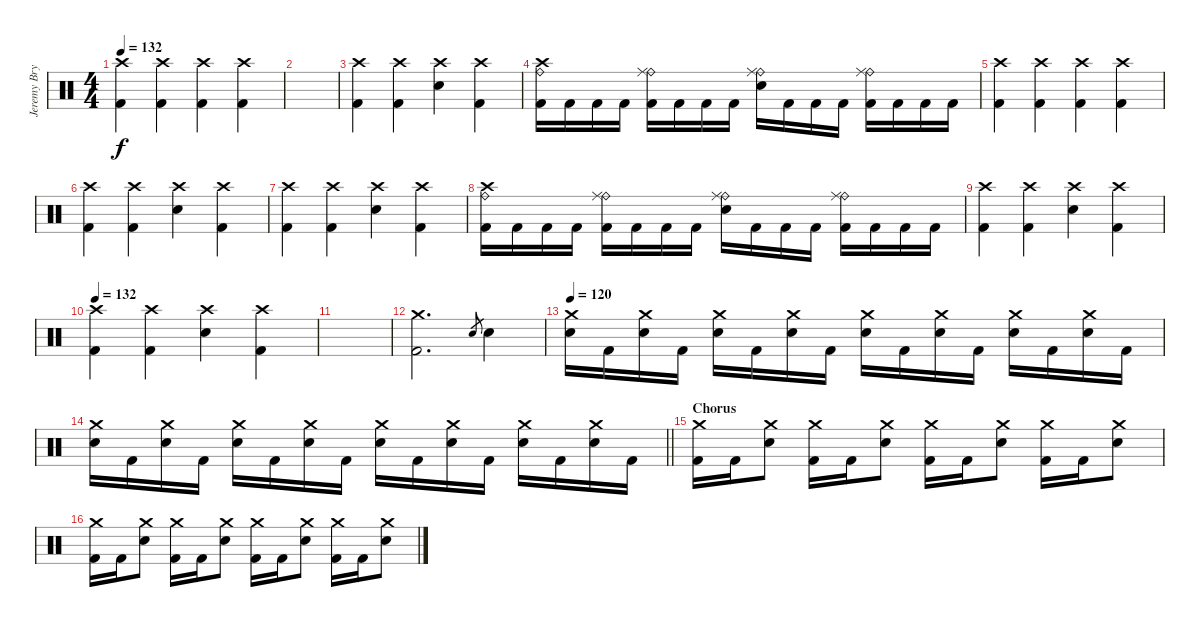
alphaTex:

\track ("Jeremy Bryan - Drums" "Jeremy Bry") {instrument percussion}
\staff {score}
\articulation defaults
\ts (4 4)
\tempo 132
\clef neutral
\ks c
("Crash high (hit)" "Kick (hit) 2").4{dy f} ("Crash high (hit)" "Kick (hit) 2").4 ("Crash high (hit)" "Kick (hit) 2").4 ("Crash high (hit)" "Kick (hit) 2").4 |
|
("Crash high (hit)" "Kick (hit) 2").4 ("Crash high (hit)" "Kick (hit) 2").4 ("Crash high (hit)" "Electric Snare (hit)").4 ("Crash high (hit)" "Kick (hit) 2").4 |
("Crash high (hit)" "Ride (bell)" "Kick (hit) 2").16 "Kick (hit) 2".16 "Kick (hit) 2".16 "Kick (hit) 2".16 ("Ride (bell)" "Ride (middle)" "Kick (hit) 2").16 "Kick (hit) 2".16 "Kick (hit) 2".16 "Kick (hit) 2".16 ("Ride (bell)" "Ride (middle)" "Electric Snare (hit)").16 "Kick (hit) 2".16 "Kick (hit) 2".16 "Kick (hit) 2".16 ("Ride (bell)" "Ride (middle)" "Kick (hit) 2").16 "Kick (hit) 2".16 "Kick (hit) 2".16 "Kick (hit) 2".16 |
("Crash high (hit)" "Kick (hit) 2").4 ("Crash high (hit)" "Kick (hit) 2").4 ("Crash high (hit)" "Kick (hit) 2").4 ("Crash high (hit)" "Kick (hit) 2").4 |
("Crash high (hit)" "Kick (hit) 2").4 ("Crash high (hit)" "Kick (hit) 2").4 ("Crash high (hit)" "Electric Snare (hit)").4 ("Crash high (hit)" "Kick (hit) 2").4 |
("Crash high (hit)" "Kick (hit) 2").4 ("Crash high (hit)" "Kick (hit) 2").4 ("Crash high (hit)" "Electric Snare (hit)").4 ("Crash high (hit)" "Kick (hit) 2").4 |
("Crash high (hit)" "Ride (bell)" "Kick (hit) 2").16 "Kick (hit) 2".16 "Kick (hit) 2".16 "Kick (hit) 2".16 ("Ride (bell)" "Ride (middle)" "Kick (hit) 2").16 "Kick (hit) 2".16 "Kick (hit) 2".16 "Kick (hit) 2".16 ("Ride (bell)" "Ride (middle)" "Electric Snare (hit)").16 "Kick (hit) 2".16 "Kick (hit) 2".16 "Kick (hit) 2".16 ("Ride (bell)" "Ride (middle)" "Kick (hit) 2").16 "Kick (hit) 2".16 "Kick (hit) 2".16 "Kick (hit) 2".16 |
("Crash high (hit)" "Kick (hit) 2").4 ("Crash high (hit)" "Kick (hit) 2").4 ("Crash high (hit)" "Electric Snare (hit)").4 ("Crash high (hit)" "Kick (hit) 2").4 |
\tempo 132
("Crash high (hit)" "Kick (hit) 2").4 ("Crash high (hit)" "Kick (hit) 2").4 ("Crash high (hit)" "Electric Snare (hit)").4 ("Crash high (hit)" "Kick (hit) 2").4 |
|
("Crash medium (hit)" "Kick (hit) 2").2{d} "Electric Snare (hit)".8{gr} "Electric Snare (hit)".4 |
\tempo 120
("Crash medium (hit)" "Electric Snare (hit)").16 "Kick (hit) 2".16 ("Crash medium (hit)" "Electric Snare (hit)").16 "Kick (hit) 2".16 ("Crash medium (hit)" "Electric Snare (hit)").16 "Kick (hit) 2".16 ("Crash medium (hit)" "Electric Snare (hit)").16 "Kick (hit) 2".16 ("Crash medium (hit)" "Electric Snare (hit)").16 "Kick (hit) 2".16 ("Crash medium (hit)" "Electric Snare (hit)").16 "Kick (hit) 2".16 ("Crash medium (hit)" "Electric Snare (hit)").16 "Kick (hit) 2".16 ("Crash medium (hit)" "Electric Snare (hit)").16 "Kick (hit) 2".16 |
\barLineRight lightlight
("Crash medium (hit)" "Electric Snare (hit)").16 "Kick (hit) 2".16 ("Crash medium (hit)" "Electric Snare (hit)").16 "Kick (hit) 2".16 ("Crash medium (hit)" "Electric Snare (hit)").16 "Kick (hit) 2".16 ("Crash medium (hit)" "Electric Snare (hit)").16 "Kick (hit) 2".16 ("Crash medium (hit)" "Electric Snare (hit)").16 "Kick (hit) 2".16 ("Crash medium (hit)" "Electric Snare (hit)").16 "Kick (hit) 2".16 ("Crash medium (hit)" "Electric Snare (hit)").16 "Kick (hit) 2".16 ("Crash medium (hit)" "Electric Snare (hit)").16 "Kick (hit) 2".16 |
\section ("" "Chorus")
("Crash medium (hit)" "Kick (hit) 2").16 "Kick (hit) 2".16 ("Crash medium (hit)" "Electric Snare (hit)").8 ("Crash medium (hit)" "Kick (hit) 2").16 "Kick (hit) 2".16 ("Crash medium (hit)" "Electric Snare (hit)").8 ("Crash medium (hit)" "Kick (hit) 2").16 "Kick (hit) 2".16 ("Crash medium (hit)" "Electric Snare (hit)").8 ("Crash medium (hit)" "Kick (hit) 2").16 "Kick (hit) 2".16 ("Crash medium (hit)" "Electric Snare (hit)").8 |
("Crash medium (hit)" "Kick (hit) 2").16 "Kick (hit) 2".16 ("Crash medium (hit)" "Electric Snare (hit)").8 ("Crash medium (hit)" "Kick (hit) 2").16 "Kick (hit) 2".16 ("Crash medium (hit)" "Electric Snare (hit)").8 ("Crash medium (hit)" "Kick (hit) 2").16 "Kick (hit) 2".16 ("Crash medium (hit)" "Electric Snare (hit)").8 ("Crash medium (hit)" "Kick (hit) 2").16 "Kick (hit) 2".16 ("Crash medium (hit)" "Electric Snare (hit)").8
